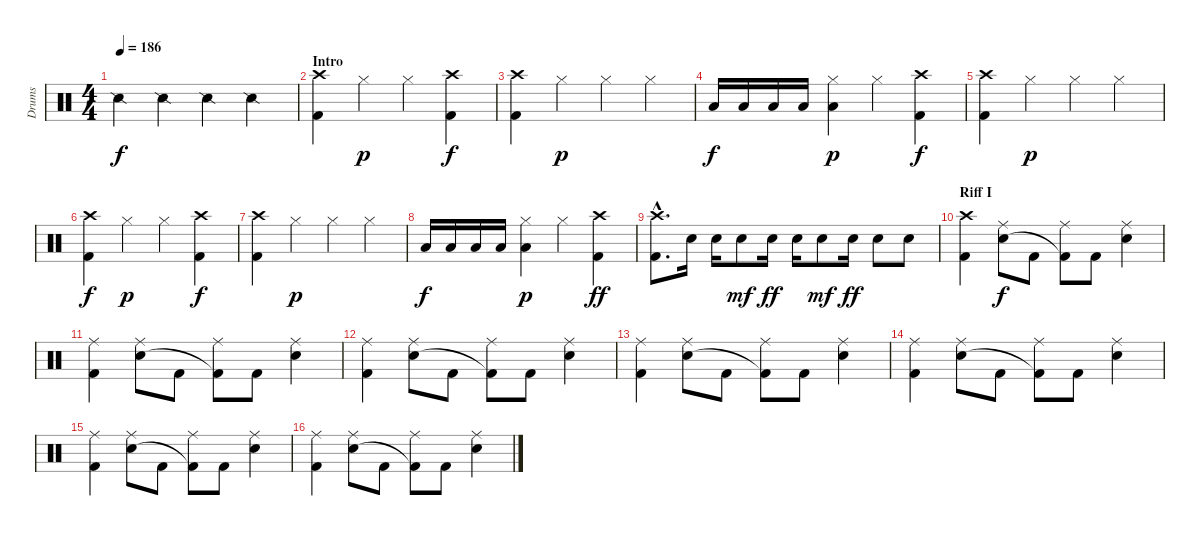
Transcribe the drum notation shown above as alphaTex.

\track ("Drums" "Drums") {instrument percussion}
\staff {score}
\articulation defaults
\ts (4 4)
\tempo 186
\clef neutral
\ks c "Snare (side stick) 2".4{dy f} "Snare (side stick) 2".4 "Snare (side stick) 2".4 "Snare (side stick) 2".4
|
\section ("" "Intro")
("Crash high (hit)" "Kick (hit) 2").4 "Hi-Hat (closed)".4{dy p} "Hi-Hat (closed)".4 ("Crash high (hit)" "Kick (hit) 2").4{dy f} |
("Crash high (hit)" "Kick (hit) 2").4 "Hi-Hat (closed)".4{dy p} "Hi-Hat (closed)".4 "Hi-Hat (closed)".4 |
"Low Tom (hit)".16{dy f} "Low Tom (hit)".16 "Low Tom (hit)".16 "Low Tom (hit)".16 ("Hi-Hat (closed)" "Low Tom (hit)").4{dy p} "Hi-Hat (closed)".4 ("Crash high (hit)" "Kick (hit) 2").4{dy f} |
("Crash high (hit)" "Kick (hit) 2").4 "Hi-Hat (closed)".4{dy p} "Hi-Hat (closed)".4 "Hi-Hat (closed)".4 |
("Crash high (hit)" "Kick (hit) 2").4{dy f} "Hi-Hat (closed)".4{dy p} "Hi-Hat (closed)".4 ("Crash high (hit)" "Kick (hit) 2").4{dy f} |
("Crash high (hit)" "Kick (hit) 2").4 "Hi-Hat (closed)".4{dy p} "Hi-Hat (closed)".4 "Hi-Hat (closed)".4 |
"Low Tom (hit)".16{dy f} "Low Tom (hit)".16 "Low Tom (hit)".16 "Low Tom (hit)".16 ("Hi-Hat (closed)" "Low Tom (hit)").4{dy p} "Hi-Hat (closed)".4 ("Crash high (hit)" "Kick (hit) 2").4{dy ff} |
("Crash high (hit)"{hac} "Kick (hit) 2"{hac}).8{d} "Electric Snare (hit)".16 "Electric Snare (hit)".16 "Electric Snare (hit)".8{dy mf} "Electric Snare (hit)".16{dy ff} "Electric Snare (hit)".16 "Electric Snare (hit)".8{dy mf} "Electric Snare (hit)".16{dy ff} "Electric Snare (hit)".8 "Electric Snare (hit)".8 |
\section ("" "Riff I")
("Crash high (hit)" "Kick (hit) 2").4 ("Ride (middle)" "Electric Snare (hit)").8{dy f} "Kick (hit) 2".8 ("Ride (middle)" "Kick (hit) 2"{t}).8 "Kick (hit) 2".8 ("Ride (middle)" "Electric Snare (hit)").4 |
("Ride (middle)" "Kick (hit) 2").4 ("Ride (middle)" "Electric Snare (hit)").8 "Kick (hit) 2".8 ("Ride (middle)" "Kick (hit) 2"{t}).8 "Kick (hit) 2".8 ("Ride (middle)" "Electric Snare (hit)").4 |
("Ride (middle)" "Kick (hit) 2").4 ("Ride (middle)" "Electric Snare (hit)").8 "Kick (hit) 2".8 ("Ride (middle)" "Kick (hit) 2"{t}).8 "Kick (hit) 2".8 ("Ride (middle)" "Electric Snare (hit)").4 |
("Ride (middle)" "Kick (hit) 2").4 ("Ride (middle)" "Electric Snare (hit)").8 "Kick (hit) 2".8 ("Ride (middle)" "Kick (hit) 2"{t}).8 "Kick (hit) 2".8 ("Ride (middle)" "Electric Snare (hit)").4 |
("Ride (middle)" "Kick (hit) 2").4 ("Ride (middle)" "Electric Snare (hit)").8 "Kick (hit) 2".8 ("Ride (middle)" "Kick (hit) 2"{t}).8 "Kick (hit) 2".8 ("Ride (middle)" "Electric Snare (hit)").4 |
("Ride (middle)" "Kick (hit) 2").4 ("Ride (middle)" "Electric Snare (hit)").8 "Kick (hit) 2".8 ("Ride (middle)" "Kick (hit) 2"{t}).8 "Kick (hit) 2".8 ("Ride (middle)" "Electric Snare (hit)").4 |
("Ride (middle)" "Kick (hit) 2").4 ("Ride (middle)" "Electric Snare (hit)").8 "Kick (hit) 2".8 ("Ride (middle)" "Kick (hit) 2"{t}).8 "Kick (hit) 2".8 ("Ride (middle)" "Electric Snare (hit)").4
